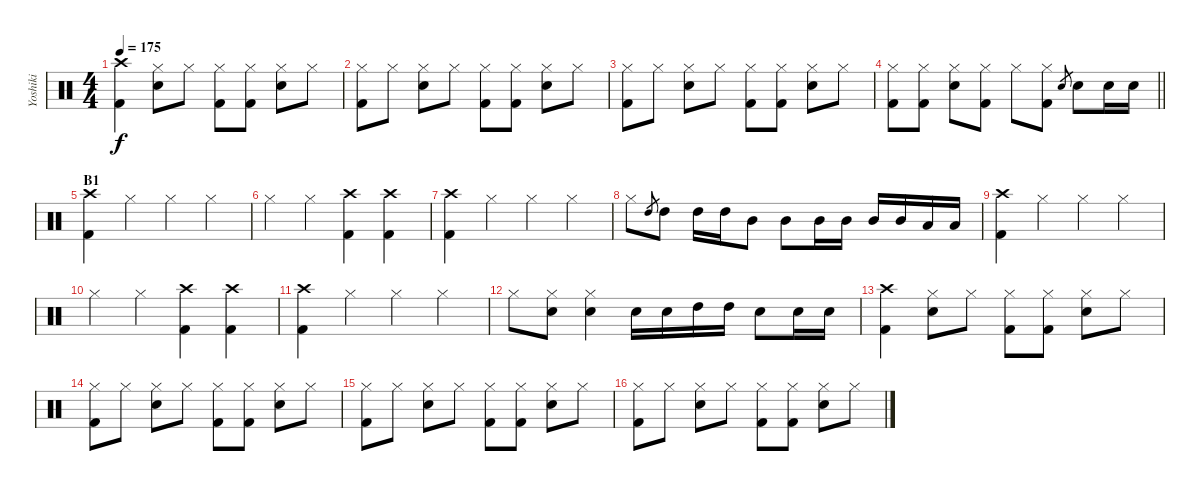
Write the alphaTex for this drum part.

\track ("Yoshiki" "Yoshiki") {instrument percussion}
\staff {score}
\articulation defaults
\ts (4 4)
\tempo 175
\clef neutral
\ks c
("Crash high (hit)" "Kick (hit) 2").4{dy f} ("Hi-Hat (closed)" "Electric Snare (hit)").8 "Hi-Hat (closed)".8 ("Hi-Hat (closed)" "Kick (hit) 2").8 ("Hi-Hat (closed)" "Kick (hit) 2").8 ("Hi-Hat (closed)" "Electric Snare (hit)").8 "Hi-Hat (closed)".8 |
("Hi-Hat (closed)" "Kick (hit) 2").8 "Hi-Hat (closed)".8 ("Hi-Hat (closed)" "Electric Snare (hit)").8 "Hi-Hat (closed)".8 ("Hi-Hat (closed)" "Kick (hit) 2").8 ("Hi-Hat (closed)" "Kick (hit) 2").8 ("Hi-Hat (closed)" "Electric Snare (hit)").8 "Hi-Hat (closed)".8 |
("Hi-Hat (closed)" "Kick (hit) 2").8 "Hi-Hat (closed)".8 ("Hi-Hat (closed)" "Electric Snare (hit)").8 "Hi-Hat (closed)".8 ("Hi-Hat (closed)" "Kick (hit) 2").8 ("Hi-Hat (closed)" "Kick (hit) 2").8 ("Hi-Hat (closed)" "Electric Snare (hit)").8 "Hi-Hat (closed)".8 |
\barLineRight lightlight
("Hi-Hat (closed)" "Kick (hit) 2").8 ("Hi-Hat (closed)" "Kick (hit) 2").8 ("Hi-Hat (closed)" "Electric Snare (hit)").8 ("Hi-Hat (closed)" "Kick (hit) 2").8 "Hi-Hat (closed)".8 ("Hi-Hat (closed)" "Kick (hit) 2").8 "Electric Snare (hit)".8{gr} "Electric Snare (hit)".8 "Electric Snare (hit)".16 "Electric Snare (hit)".16 |
\section ("" "B1")
("Crash high (hit)" "Kick (hit) 2").4 "Hi-Hat (closed)".4 "Hi-Hat (closed)".4 "Hi-Hat (closed)".4 |
"Hi-Hat (closed)".4 "Hi-Hat (closed)".4 ("Crash high (hit)" "Kick (hit) 2").4 ("Crash high (hit)" "Kick (hit) 2").4 |
("Crash high (hit)" "Kick (hit) 2").4 "Hi-Hat (closed)".4 "Hi-Hat (closed)".4 "Hi-Hat (closed)".4 |
"Hi-Hat (closed)".8 "High Tom (hit)".8{gr} "High Tom (hit)".8 "High Tom (hit)".16 "High Tom (hit)".16 "Mid Tom (hit)".8 "Mid Tom (hit)".8 "Mid Tom (hit)".16 "Mid Tom (hit)".16 "Mid Tom (hit)".16 "Mid Tom (hit)".16 "Low Tom (hit)".16 "Low Tom (hit)".16 |
("Crash high (hit)" "Kick (hit) 2").4 "Hi-Hat (closed)".4 "Hi-Hat (closed)".4 "Hi-Hat (closed)".4 |
"Hi-Hat (closed)".4 "Hi-Hat (closed)".4 ("Crash high (hit)" "Kick (hit) 2").4 ("Crash high (hit)" "Kick (hit) 2").4 |
("Crash high (hit)" "Kick (hit) 2").4 "Hi-Hat (closed)".4 "Hi-Hat (closed)".4 "Hi-Hat (closed)".4 |
"Hi-Hat (closed)".8 ("Hi-Hat (closed)" "Electric Snare (hit)").8 ("Hi-Hat (closed)" "Electric Snare (hit)").4 "Electric Snare (hit)".16 "Electric Snare (hit)".16 "High Tom (hit)".16 "High Tom (hit)".16 "Electric Snare (hit)".8 "Electric Snare (hit)".16 "Electric Snare (hit)".16 |
("Crash high (hit)" "Kick (hit) 2").4 ("Hi-Hat (closed)" "Electric Snare (hit)").8 "Hi-Hat (closed)".8 ("Hi-Hat (closed)" "Kick (hit) 2").8 ("Hi-Hat (closed)" "Kick (hit) 2").8 ("Hi-Hat (closed)" "Electric Snare (hit)").8 "Hi-Hat (closed)".8 |
("Hi-Hat (closed)" "Kick (hit) 2").8 "Hi-Hat (closed)".8 ("Hi-Hat (closed)" "Electric Snare (hit)").8 "Hi-Hat (closed)".8 ("Hi-Hat (closed)" "Kick (hit) 2").8 ("Hi-Hat (closed)" "Kick (hit) 2").8 ("Hi-Hat (closed)" "Electric Snare (hit)").8 "Hi-Hat (closed)".8 |
("Hi-Hat (closed)" "Kick (hit) 2").8 "Hi-Hat (closed)".8 ("Hi-Hat (closed)" "Electric Snare (hit)").8 "Hi-Hat (closed)".8 ("Hi-Hat (closed)" "Kick (hit) 2").8 ("Hi-Hat (closed)" "Kick (hit) 2").8 ("Hi-Hat (closed)" "Electric Snare (hit)").8 "Hi-Hat (closed)".8 |
("Hi-Hat (closed)" "Kick (hit) 2").8 "Hi-Hat (closed)".8 ("Hi-Hat (closed)" "Electric Snare (hit)").8 "Hi-Hat (closed)".8 ("Hi-Hat (closed)" "Kick (hit) 2").8 ("Hi-Hat (closed)" "Kick (hit) 2").8 ("Hi-Hat (closed)" "Electric Snare (hit)").8 "Hi-Hat (closed)".8
